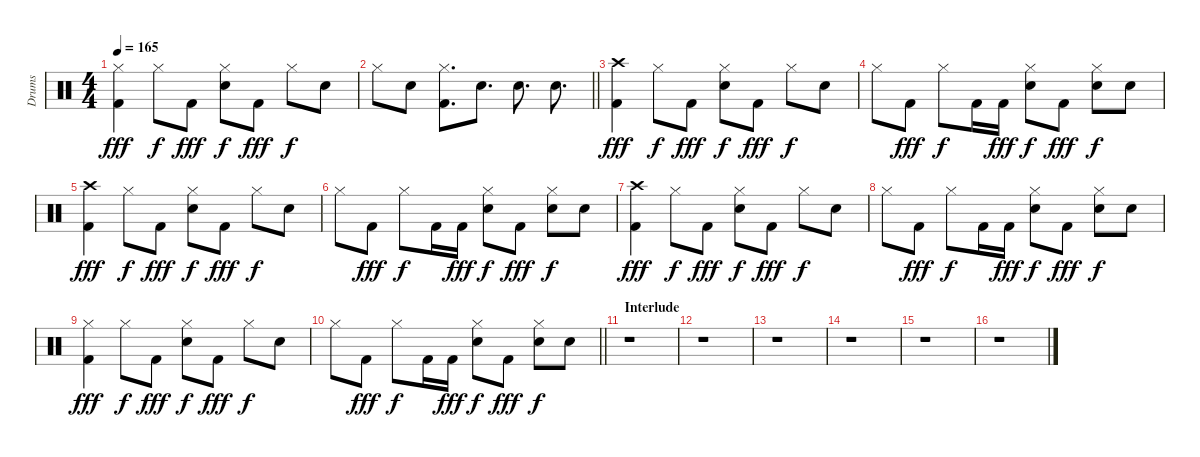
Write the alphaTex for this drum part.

\track ("Drums" "Drums") {instrument percussion}
\staff {score}
\articulation defaults
\ts (4 4)
\tempo 165
\clef neutral
\ks c
("Hi-Hat (closed)" "Kick (hit) 2").4{dy fff} "Hi-Hat (closed)".8{dy f} "Kick (hit) 2".8{dy fff} ("Hi-Hat (closed)" "Snare (hit) 2").8{dy f} "Kick (hit) 2".8{dy fff} "Hi-Hat (closed)".8{dy f} "Snare (hit) 2".8 |
\barLineRight lightlight "Hi-Hat (closed)".8 "Snare (hit) 2".8
("Hi-Hat (closed)" "Kick (hit) 2").8{d} "Snare (hit) 2".8{d} "Snare (hit) 2".8{d} "Snare (hit) 2".8{d} |
("Crash high (hit)" "Kick (hit) 2").4{dy fff} "Hi-Hat (closed)".8{dy f} "Kick (hit) 2".8{dy fff} ("Hi-Hat (closed)" "Snare (hit) 2").8{dy f} "Kick (hit) 2".8{dy fff} "Hi-Hat (closed)".8{dy f} "Snare (hit) 2".8 |
"Hi-Hat (closed)".8 "Kick (hit) 2".8{dy fff} "Hi-Hat (closed)".8{dy f} "Kick (hit) 2".16 "Kick (hit) 2".16{dy fff} ("Hi-Hat (closed)" "Snare (hit) 2").8{dy f} "Kick (hit) 2".8{dy fff} ("Hi-Hat (closed)" "Snare (hit) 2").8{dy f} "Snare (hit) 2".8 |
("Crash high (hit)" "Kick (hit) 2").4{dy fff} "Hi-Hat (closed)".8{dy f} "Kick (hit) 2".8{dy fff} ("Hi-Hat (closed)" "Snare (hit) 2").8{dy f} "Kick (hit) 2".8{dy fff} "Hi-Hat (closed)".8{dy f} "Snare (hit) 2".8 |
"Hi-Hat (closed)".8 "Kick (hit) 2".8{dy fff} "Hi-Hat (closed)".8{dy f} "Kick (hit) 2".16 "Kick (hit) 2".16{dy fff} ("Hi-Hat (closed)" "Snare (hit) 2").8{dy f} "Kick (hit) 2".8{dy fff} ("Hi-Hat (closed)" "Snare (hit) 2").8{dy f} "Snare (hit) 2".8 |
("Crash high (hit)" "Kick (hit) 2").4{dy fff} "Hi-Hat (closed)".8{dy f} "Kick (hit) 2".8{dy fff} ("Hi-Hat (closed)" "Snare (hit) 2").8{dy f} "Kick (hit) 2".8{dy fff} "Hi-Hat (closed)".8{dy f} "Snare (hit) 2".8 |
"Hi-Hat (closed)".8 "Kick (hit) 2".8{dy fff} "Hi-Hat (closed)".8{dy f} "Kick (hit) 2".16 "Kick (hit) 2".16{dy fff} ("Hi-Hat (closed)" "Snare (hit) 2").8{dy f} "Kick (hit) 2".8{dy fff} ("Hi-Hat (closed)" "Snare (hit) 2").8{dy f} "Snare (hit) 2".8 |
("Hi-Hat (closed)" "Kick (hit) 2").4{dy fff} "Hi-Hat (closed)".8{dy f} "Kick (hit) 2".8{dy fff} ("Hi-Hat (closed)" "Snare (hit) 2").8{dy f} "Kick (hit) 2".8{dy fff} "Hi-Hat (closed)".8{dy f} "Snare (hit) 2".8 |
\barLineRight lightlight "Hi-Hat (closed)".8 "Kick (hit) 2".8{dy fff} "Hi-Hat (closed)".8{dy f} "Kick (hit) 2".16 "Kick (hit) 2".16{dy fff}
("Hi-Hat (closed)" "Snare (hit) 2").8{dy f} "Kick (hit) 2".8{dy fff} ("Hi-Hat (closed)" "Snare (hit) 2").8{dy f} "Snare (hit) 2".8 |
\section ("" "Interlude")
r.1 |
r.1 |
r.1 |
r.1 |
r.1 |
r.1
